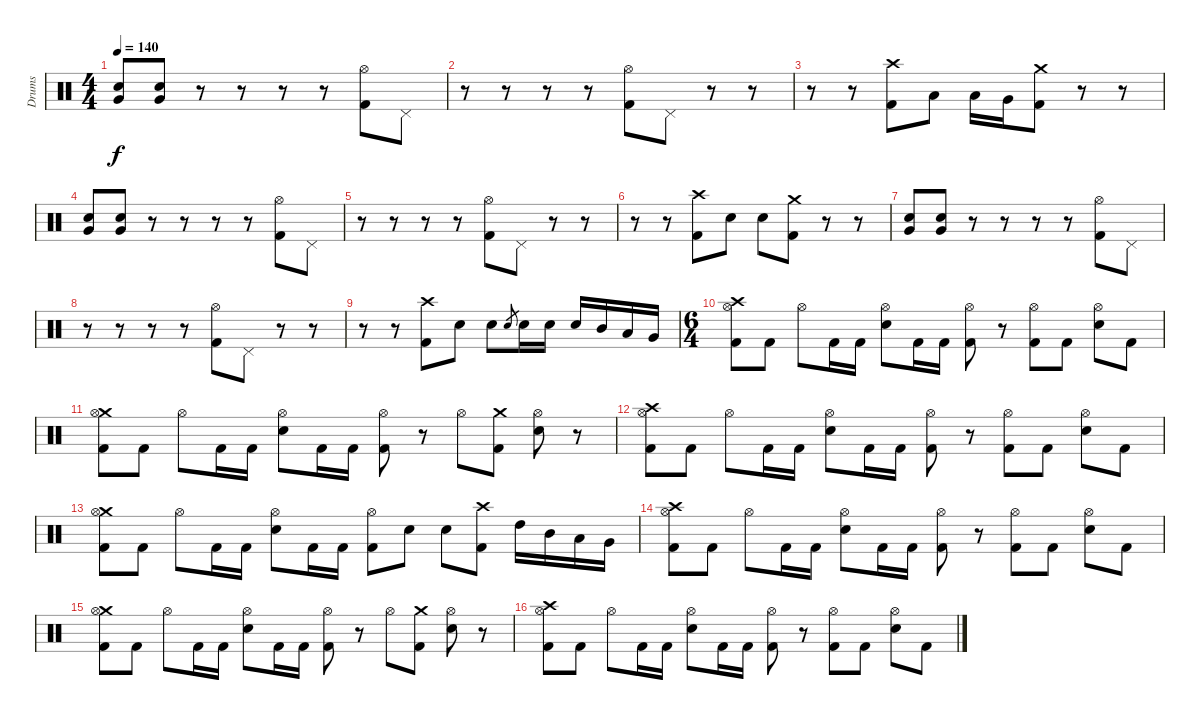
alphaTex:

\track ("Drums" "Drums") {instrument percussion}
\staff {score}
\articulation defaults
\ts (4 4)
\tempo 140
\clef neutral
\ks c
("Very Low Tom (hit)" "Electric Snare (hit)").8{dy f} ("Very Low Tom (hit)" "Electric Snare (hit)").8 r.8 r.8 r.8 r.8 ("Hi-Hat (open)" "Kick (hit) 2").8 "Pedal Hi-Hat (hit)".8 |
r.8 r.8 r.8 r.8 ("Hi-Hat (open)" "Kick (hit) 2").8 "Pedal Hi-Hat (hit)".8 r.8 r.8 |
r.8 r.8 ("Crash high (hit)" "Kick (hit) 2").8 "Low Tom (hit)".8 "Low Tom (hit)".16 "Very Low Tom (hit)".16 ("Crash medium (hit)" "Kick (hit) 2").8 r.8 r.8 |
("Very Low Tom (hit)" "Electric Snare (hit)").8 ("Very Low Tom (hit)" "Electric Snare (hit)").8 r.8 r.8 r.8 r.8 ("Hi-Hat (open)" "Kick (hit) 2").8 "Pedal Hi-Hat (hit)".8 |
r.8 r.8 r.8 r.8 ("Hi-Hat (open)" "Kick (hit) 2").8 "Pedal Hi-Hat (hit)".8 r.8 r.8 |
r.8 r.8 ("Crash high (hit)" "Kick (hit) 2").8 "Electric Snare (hit)".8 "Electric Snare (hit)".8 ("Crash medium (hit)" "Kick (hit) 2").8 r.8 r.8 |
("Very Low Tom (hit)" "Electric Snare (hit)").8 ("Very Low Tom (hit)" "Electric Snare (hit)").8 r.8 r.8 r.8 r.8 ("Hi-Hat (open)" "Kick (hit) 2").8 "Pedal Hi-Hat (hit)".8 |
r.8 r.8 r.8 r.8 ("Hi-Hat (open)" "Kick (hit) 2").8 "Pedal Hi-Hat (hit)".8 r.8 r.8 |
r.8 r.8 ("Crash high (hit)" "Kick (hit) 2").8 "Electric Snare (hit)".8 "Electric Snare (hit)".8 "Electric Snare (hit)".8{gr} "Electric Snare (hit)".16 "Electric Snare (hit)".16 "Electric Snare (hit)".16 "Mid Tom (hit)".16 "Low Tom (hit)".16 "Very Low Tom (hit)".16 |
\ts (6 4)
("Crash high (hit)" "Hi-Hat (open)" "Kick (hit) 2").8 "Kick (hit) 2".8 "Hi-Hat (open)".8 "Kick (hit) 2".16 "Kick (hit) 2".16 ("Hi-Hat (open)" "Electric Snare (hit)").8 "Kick (hit) 2".16 "Kick (hit) 2".16 ("Hi-Hat (open)" "Kick (hit) 2").8 r.8 ("Hi-Hat (open)" "Kick (hit) 2").8 "Kick (hit) 2".8 ("Hi-Hat (open)" "Electric Snare (hit)").8 "Kick (hit) 2".8 |
("Crash medium (hit)" "Hi-Hat (open)" "Kick (hit) 2").8 "Kick (hit) 2".8 "Hi-Hat (open)".8 "Kick (hit) 2".16 "Kick (hit) 2".16 ("Hi-Hat (open)" "Electric Snare (hit)").8 "Kick (hit) 2".16 "Kick (hit) 2".16 ("Hi-Hat (open)" "Kick (hit) 2").8 r.8 "Hi-Hat (open)".8 ("Crash medium (hit)" "Kick (hit) 2").8 ("Hi-Hat (open)" "Electric Snare (hit)").8 r.8 |
("Crash high (hit)" "Hi-Hat (open)" "Kick (hit) 2").8 "Kick (hit) 2".8 "Hi-Hat (open)".8 "Kick (hit) 2".16 "Kick (hit) 2".16 ("Hi-Hat (open)" "Electric Snare (hit)").8 "Kick (hit) 2".16 "Kick (hit) 2".16 ("Hi-Hat (open)" "Kick (hit) 2").8 r.8 ("Hi-Hat (open)" "Kick (hit) 2").8 "Kick (hit) 2".8 ("Hi-Hat (open)" "Electric Snare (hit)").8 "Kick (hit) 2".8 |
("Crash medium (hit)" "Hi-Hat (open)" "Kick (hit) 2").8 "Kick (hit) 2".8 "Hi-Hat (open)".8 "Kick (hit) 2".16 "Kick (hit) 2".16 ("Hi-Hat (open)" "Electric Snare (hit)").8 "Kick (hit) 2".16 "Kick (hit) 2".16 ("Hi-Hat (open)" "Kick (hit) 2").8 "Electric Snare (hit)".8 "Electric Snare (hit)".8 ("Crash high (hit)" "Kick (hit) 2").8 "High Tom (hit)".16 "Mid Tom (hit)".16 "Low Tom (hit)".16 "Very Low Tom (hit)".16 |
("Crash high (hit)" "Hi-Hat (open)" "Kick (hit) 2").8 "Kick (hit) 2".8 "Hi-Hat (open)".8 "Kick (hit) 2".16 "Kick (hit) 2".16 ("Hi-Hat (open)" "Electric Snare (hit)").8 "Kick (hit) 2".16 "Kick (hit) 2".16 ("Hi-Hat (open)" "Kick (hit) 2").8 r.8 ("Hi-Hat (open)" "Kick (hit) 2").8 "Kick (hit) 2".8 ("Hi-Hat (open)" "Electric Snare (hit)").8 "Kick (hit) 2".8 |
("Crash medium (hit)" "Hi-Hat (open)" "Kick (hit) 2").8 "Kick (hit) 2".8 "Hi-Hat (open)".8 "Kick (hit) 2".16 "Kick (hit) 2".16 ("Hi-Hat (open)" "Electric Snare (hit)").8 "Kick (hit) 2".16 "Kick (hit) 2".16 ("Hi-Hat (open)" "Kick (hit) 2").8 r.8 "Hi-Hat (open)".8 ("Crash medium (hit)" "Kick (hit) 2").8 ("Hi-Hat (open)" "Electric Snare (hit)").8 r.8 |
("Crash high (hit)" "Hi-Hat (open)" "Kick (hit) 2").8 "Kick (hit) 2".8 "Hi-Hat (open)".8 "Kick (hit) 2".16 "Kick (hit) 2".16 ("Hi-Hat (open)" "Electric Snare (hit)").8 "Kick (hit) 2".16 "Kick (hit) 2".16 ("Hi-Hat (open)" "Kick (hit) 2").8 r.8 ("Hi-Hat (open)" "Kick (hit) 2").8 "Kick (hit) 2".8 ("Hi-Hat (open)" "Electric Snare (hit)").8 "Kick (hit) 2".8
